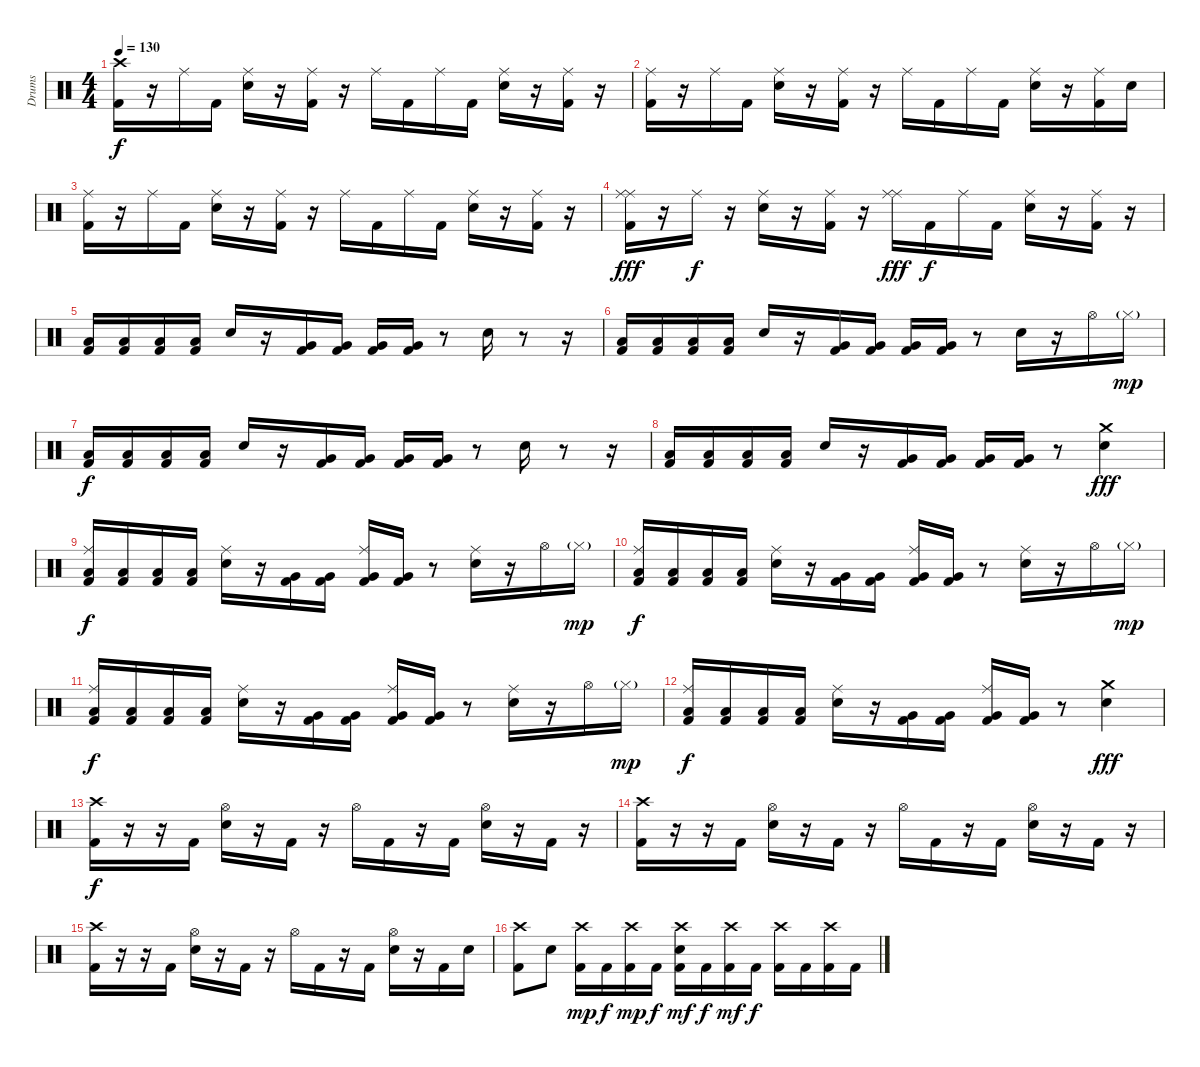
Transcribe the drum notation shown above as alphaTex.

\track ("Drums" "Drums") {instrument percussion}
\staff {score}
\articulation defaults
\ts (4 4)
\tempo 130
\clef neutral
\ks c
("Crash high (hit)" "Kick (hit) 2").16{dy f} r.16 "Ride (middle)".16 "Kick (hit) 2".16 ("Ride (middle)" "Electric Snare (hit)").16 r.16 ("Ride (middle)" "Kick (hit) 2").16 r.16 "Ride (middle)".16 "Kick (hit) 2".16 "Ride (middle)".16 "Kick (hit) 2".16 ("Ride (middle)" "Electric Snare (hit)").16 r.16 ("Ride (middle)" "Kick (hit) 2").16 r.16 |
("Ride (middle)" "Kick (hit) 2").16 r.16 "Ride (middle)".16 "Kick (hit) 2".16 ("Ride (middle)" "Electric Snare (hit)").16 r.16 ("Ride (middle)" "Kick (hit) 2").16 r.16 "Ride (middle)".16 "Kick (hit) 2".16 "Ride (middle)".16 "Kick (hit) 2".16 ("Ride (middle)" "Electric Snare (hit)").16 r.16 ("Ride (middle)" "Kick (hit) 2").16 "Electric Snare (hit)".16 |
("Ride (middle)" "Kick (hit) 2").16 r.16 "Ride (middle)".16 "Kick (hit) 2".16 ("Ride (middle)" "Electric Snare (hit)").16 r.16 ("Ride (middle)" "Kick (hit) 2").16 r.16 "Ride (middle)".16 "Kick (hit) 2".16 "Ride (middle)".16 "Kick (hit) 2".16 ("Ride (middle)" "Electric Snare (hit)").16 r.16 ("Ride (middle)" "Kick (hit) 2").16 r.16 |
("Ride (middle)" "Ride (middle)" "Kick (hit) 2").16{dy fff} r.16 "Ride (middle)".16{dy f} r.16 ("Ride (middle)" "Electric Snare (hit)").16 r.16 ("Ride (middle)" "Kick (hit) 2").16 r.16 ("Ride (middle)" "Ride (middle)").16{dy fff} "Kick (hit) 2".16{dy f} "Ride (middle)".16 "Kick (hit) 2".16 ("Ride (middle)" "Electric Snare (hit)").16 r.16 ("Ride (middle)" "Kick (hit) 2").16 r.16 |
("Low Tom (hit)" "Kick (hit) 2").16 ("Low Tom (hit)" "Kick (hit) 2").16 ("Low Tom (hit)" "Kick (hit) 2").16 ("Low Tom (hit)" "Kick (hit) 2").16 "Electric Snare (hit)".16 r.16 ("Very Low Tom (hit)" "Kick (hit) 2").16 ("Very Low Tom (hit)" "Kick (hit) 2").16 ("Very Low Tom (hit)" "Kick (hit) 2").16 ("Very Low Tom (hit)" "Kick (hit) 2").16 r.8 "Electric Snare (hit)".16 r.8 r.16 |
("Low Tom (hit)" "Kick (hit) 2").16 ("Low Tom (hit)" "Kick (hit) 2").16 ("Low Tom (hit)" "Kick (hit) 2").16 ("Low Tom (hit)" "Kick (hit) 2").16 "Electric Snare (hit)".16 r.16 ("Very Low Tom (hit)" "Kick (hit) 2").16 ("Very Low Tom (hit)" "Kick (hit) 2").16 ("Very Low Tom (hit)" "Kick (hit) 2").16 ("Very Low Tom (hit)" "Kick (hit) 2").16 r.8 "Electric Snare (hit)".16 r.16 "Hi-Hat (open)".16 "Hi-Hat (closed)"{g}.16{dy mp} |
("Low Tom (hit)" "Kick (hit) 2").16{dy f} ("Low Tom (hit)" "Kick (hit) 2").16 ("Low Tom (hit)" "Kick (hit) 2").16 ("Low Tom (hit)" "Kick (hit) 2").16 "Electric Snare (hit)".16 r.16 ("Very Low Tom (hit)" "Kick (hit) 2").16 ("Very Low Tom (hit)" "Kick (hit) 2").16 ("Very Low Tom (hit)" "Kick (hit) 2").16 ("Very Low Tom (hit)" "Kick (hit) 2").16 r.8 "Electric Snare (hit)".16 r.8 r.16 |
("Low Tom (hit)" "Kick (hit) 2").16 ("Low Tom (hit)" "Kick (hit) 2").16 ("Low Tom (hit)" "Kick (hit) 2").16 ("Low Tom (hit)" "Kick (hit) 2").16 "Electric Snare (hit)".16 r.16 ("Very Low Tom (hit)" "Kick (hit) 2").16 ("Very Low Tom (hit)" "Kick (hit) 2").16 ("Very Low Tom (hit)" "Kick (hit) 2").16 ("Very Low Tom (hit)" "Kick (hit) 2").16 r.8 ("Crash medium (hit)" "Electric Snare (hit)").4{dy fff} |
("Ride (middle)" "Low Tom (hit)" "Kick (hit) 2").16{dy f} ("Low Tom (hit)" "Kick (hit) 2").16 ("Low Tom (hit)" "Kick (hit) 2").16 ("Low Tom (hit)" "Kick (hit) 2").16 ("Ride (middle)" "Electric Snare (hit)").16 r.16 ("Very Low Tom (hit)" "Kick (hit) 2").16 ("Very Low Tom (hit)" "Kick (hit) 2").16 ("Ride (middle)" "Very Low Tom (hit)" "Kick (hit) 2").16 ("Very Low Tom (hit)" "Kick (hit) 2").16 r.8 ("Ride (middle)" "Electric Snare (hit)").16 r.16 "Hi-Hat (open)".16 "Hi-Hat (closed)"{g}.16{dy mp} |
("Ride (middle)" "Low Tom (hit)" "Kick (hit) 2").16{dy f} ("Low Tom (hit)" "Kick (hit) 2").16 ("Low Tom (hit)" "Kick (hit) 2").16 ("Low Tom (hit)" "Kick (hit) 2").16 ("Ride (middle)" "Electric Snare (hit)").16 r.16 ("Very Low Tom (hit)" "Kick (hit) 2").16 ("Very Low Tom (hit)" "Kick (hit) 2").16 ("Ride (middle)" "Very Low Tom (hit)" "Kick (hit) 2").16 ("Very Low Tom (hit)" "Kick (hit) 2").16 r.8 ("Ride (middle)" "Electric Snare (hit)").16 r.16 "Hi-Hat (open)".16 "Hi-Hat (closed)"{g}.16{dy mp} |
("Ride (middle)" "Low Tom (hit)" "Kick (hit) 2").16{dy f} ("Low Tom (hit)" "Kick (hit) 2").16 ("Low Tom (hit)" "Kick (hit) 2").16 ("Low Tom (hit)" "Kick (hit) 2").16 ("Ride (middle)" "Electric Snare (hit)").16 r.16 ("Very Low Tom (hit)" "Kick (hit) 2").16 ("Very Low Tom (hit)" "Kick (hit) 2").16 ("Ride (middle)" "Very Low Tom (hit)" "Kick (hit) 2").16 ("Very Low Tom (hit)" "Kick (hit) 2").16 r.8 ("Ride (middle)" "Electric Snare (hit)").16 r.16 "Hi-Hat (open)".16 "Hi-Hat (closed)"{g}.16{dy mp} |
("Ride (middle)" "Low Tom (hit)" "Kick (hit) 2").16{dy f} ("Low Tom (hit)" "Kick (hit) 2").16 ("Low Tom (hit)" "Kick (hit) 2").16 ("Low Tom (hit)" "Kick (hit) 2").16 ("Ride (middle)" "Electric Snare (hit)").16 r.16 ("Very Low Tom (hit)" "Kick (hit) 2").16 ("Very Low Tom (hit)" "Kick (hit) 2").16 ("Ride (middle)" "Very Low Tom (hit)" "Kick (hit) 2").16 ("Very Low Tom (hit)" "Kick (hit) 2").16 r.8 ("Crash medium (hit)" "Electric Snare (hit)").4{dy fff} |
("Crash high (hit)" "Kick (hit) 2").16{dy f} r.16 r.16 "Kick (hit) 2".16 ("Hi-Hat (open)" "Electric Snare (hit)").16 r.16 "Kick (hit) 2".16 r.16 "Hi-Hat (open)".16 "Kick (hit) 2".16 r.16 "Kick (hit) 2".16 ("Hi-Hat (open)" "Electric Snare (hit)").16 r.16 "Kick (hit) 2".16 r.16 |
("Crash high (hit)" "Kick (hit) 2").16 r.16 r.16 "Kick (hit) 2".16 ("Hi-Hat (open)" "Electric Snare (hit)").16 r.16 "Kick (hit) 2".16 r.16 "Hi-Hat (open)".16 "Kick (hit) 2".16 r.16 "Kick (hit) 2".16 ("Hi-Hat (open)" "Electric Snare (hit)").16 r.16 "Kick (hit) 2".16 r.16 |
("Crash high (hit)" "Kick (hit) 2").16 r.16 r.16 "Kick (hit) 2".16 ("Hi-Hat (open)" "Electric Snare (hit)").16 r.16 "Kick (hit) 2".16 r.16 "Hi-Hat (open)".16 "Kick (hit) 2".16 r.16 "Kick (hit) 2".16 ("Hi-Hat (open)" "Electric Snare (hit)").16 r.16 "Kick (hit) 2".16 "Electric Snare (hit)".16 |
("Crash high (hit)" "Kick (hit) 2").8 "Electric Snare (hit)".8 ("Crash high (hit)" "Kick (hit) 2").16{dy mp} "Kick (hit) 2".16{dy f} ("Crash high (hit)" "Kick (hit) 2").16{dy mp} "Kick (hit) 2".16{dy f} ("Crash high (hit)" "Electric Snare (hit)" "Kick (hit) 2").16{dy mf} "Kick (hit) 2".16{dy f} ("Crash high (hit)" "Kick (hit) 2").16{dy mf} "Kick (hit) 2".16{dy f} ("Crash high (hit)" "Kick (hit) 2").16 "Kick (hit) 2".16 ("Crash high (hit)" "Kick (hit) 2").16 "Kick (hit) 2".16
